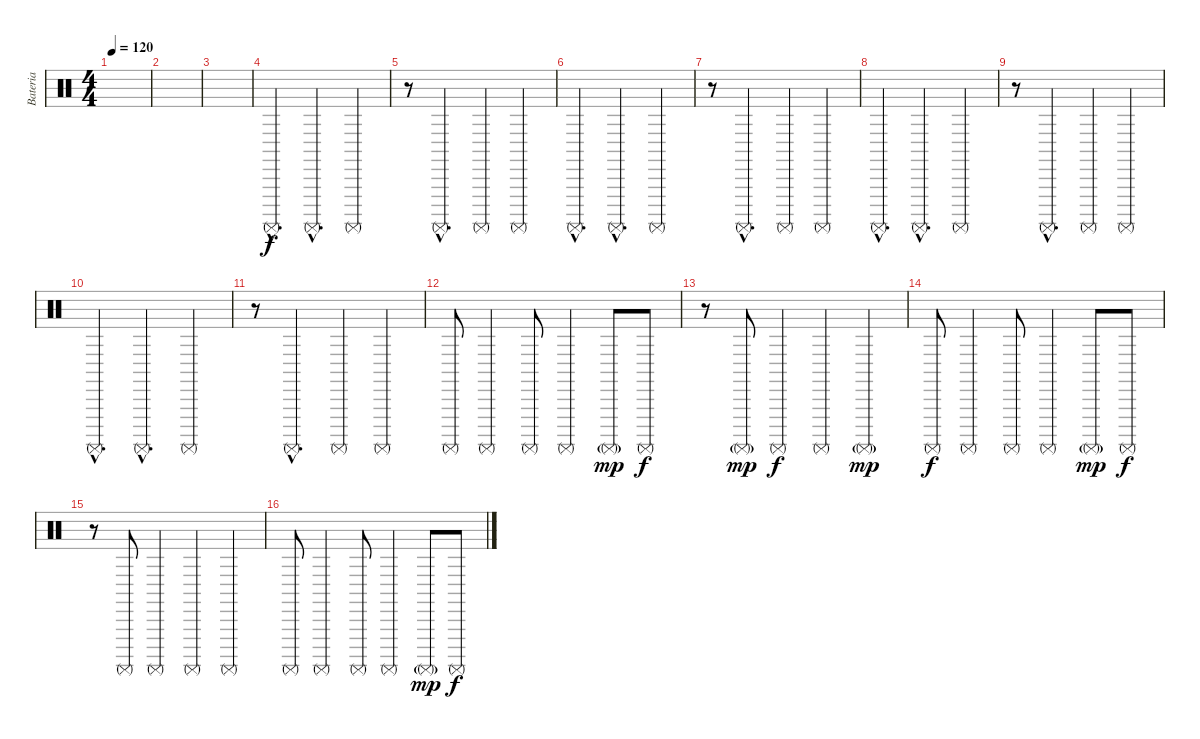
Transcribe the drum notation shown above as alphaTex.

\track ("Bateria" "Bateria") {instrument percussion}
\staff {score}
\articulation defaults
\ts (4 4)
\tempo 120
\clef neutral
\ks c
|
|
|
"Surdo (mute)"{hac}.4{d} "Surdo (mute)"{hac}.4{d} "Surdo (mute)".4 |
r.8 "Surdo (mute)"{hac}.4{d} "Surdo (mute)".4 "Surdo (mute)".4 |
"Surdo (mute)"{hac}.4{d} "Surdo (mute)"{hac}.4{d} "Surdo (mute)".4 |
r.8 "Surdo (mute)"{hac}.4{d} "Surdo (mute)".4 "Surdo (mute)".4 |
"Surdo (mute)"{hac}.4{d} "Surdo (mute)"{hac}.4{d} "Surdo (mute)".4 |
r.8 "Surdo (mute)"{hac}.4{d} "Surdo (mute)".4 "Surdo (mute)".4 |
"Surdo (mute)"{hac}.4{d} "Surdo (mute)"{hac}.4{d} "Surdo (mute)".4 |
r.8 "Surdo (mute)"{hac}.4{d} "Surdo (mute)".4 "Surdo (mute)".4 |
"Surdo (mute)".8 "Surdo (mute)".4 "Surdo (mute)".8 "Surdo (mute)".4 "Surdo (mute)"{g}.8{dy mp} "Surdo (mute)".8{dy f} |
r.8 "Surdo (mute)"{g}.8{dy mp} "Surdo (mute)".4{dy f} "Surdo (mute)".4 "Surdo (mute)"{g}.4{dy mp} |
"Surdo (mute)".8{dy f} "Surdo (mute)".4 "Surdo (mute)".8 "Surdo (mute)".4 "Surdo (mute)"{g}.8{dy mp} "Surdo (mute)".8{dy f} |
r.8 "Surdo (mute)".8 "Surdo (mute)".4 "Surdo (mute)".4 "Surdo (mute)".4 |
"Surdo (mute)".8{volume 12} "Surdo (mute)".4 "Surdo (mute)".8 "Surdo (mute)".4 "Surdo (mute)"{g}.8{dy mp} "Surdo (mute)".8{dy f}
